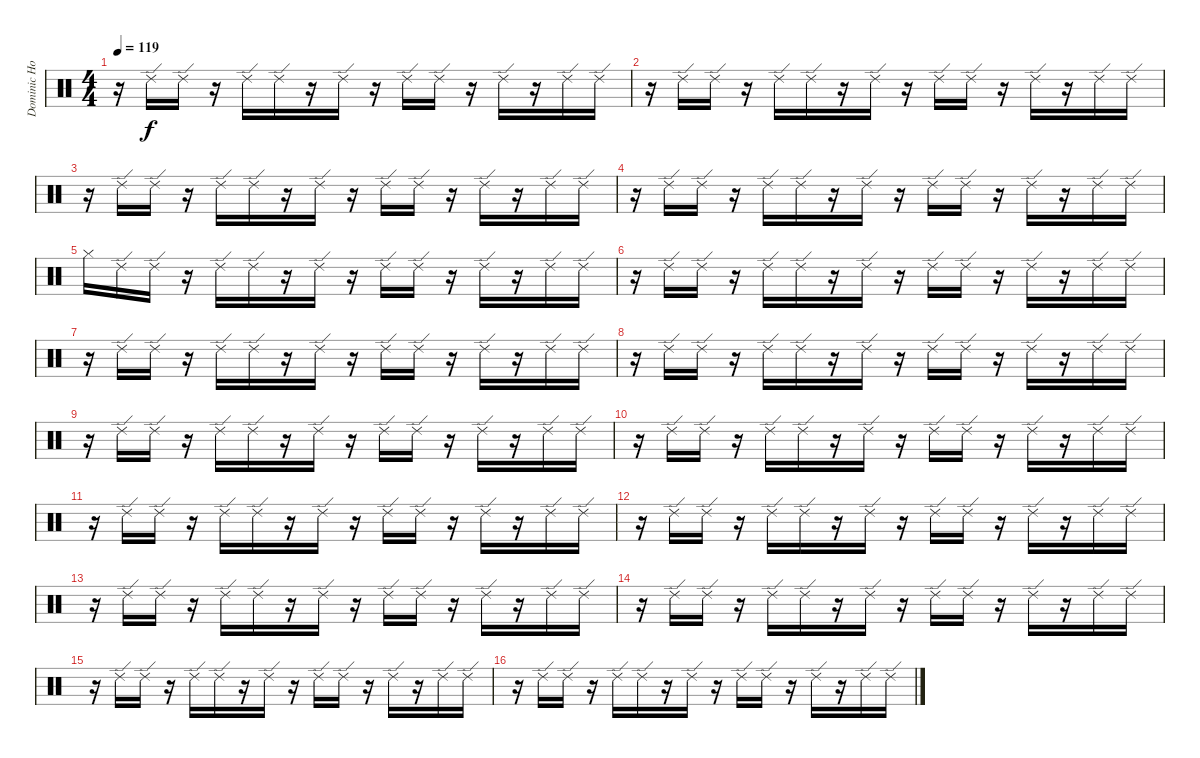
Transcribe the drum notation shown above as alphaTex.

\track ("Dominic Howard" "Dominic Ho") {instrument percussion}
\staff {score}
\articulation defaults
\ts (4 4)
\tempo 119
\clef neutral
\ks c
r.16{dy f} "Ride (edge) 2".16 "Ride (edge) 2".16 r.16 "Ride (edge) 2".16 "Ride (edge) 2".16 r.16 "Ride (edge) 2".16 r.16 "Ride (edge) 2".16 "Ride (edge) 2".16 r.16 "Ride (edge) 2".16 r.16 "Ride (edge) 2".16 "Ride (edge) 2".16 |
r.16 "Ride (edge) 2".16 "Ride (edge) 2".16 r.16 "Ride (edge) 2".16 "Ride (edge) 2".16 r.16 "Ride (edge) 2".16 r.16 "Ride (edge) 2".16 "Ride (edge) 2".16 r.16 "Ride (edge) 2".16 r.16 "Ride (edge) 2".16 "Ride (edge) 2".16 |
r.16 "Ride (edge) 2".16 "Ride (edge) 2".16 r.16 "Ride (edge) 2".16 "Ride (edge) 2".16 r.16 "Ride (edge) 2".16 r.16 "Ride (edge) 2".16 "Ride (edge) 2".16 r.16 "Ride (edge) 2".16 r.16 "Ride (edge) 2".16 "Ride (edge) 2".16 |
r.16 "Ride (edge) 2".16 "Ride (edge) 2".16 r.16 "Ride (edge) 2".16 "Ride (edge) 2".16 r.16 "Ride (edge) 2".16 r.16 "Ride (edge) 2".16 "Ride (edge) 2".16 r.16 "Ride (edge) 2".16 r.16 "Ride (edge) 2".16 "Ride (edge) 2".16 |
"Hi-Hat (closed)".16 "Ride (edge) 2".16 "Ride (edge) 2".16 r.16 "Ride (edge) 2".16 "Ride (edge) 2".16 r.16 "Ride (edge) 2".16 r.16 "Ride (edge) 2".16 "Ride (edge) 2".16 r.16 "Ride (edge) 2".16 r.16 "Ride (edge) 2".16 "Ride (edge) 2".16 |
r.16 "Ride (edge) 2".16 "Ride (edge) 2".16 r.16 "Ride (edge) 2".16 "Ride (edge) 2".16 r.16 "Ride (edge) 2".16 r.16 "Ride (edge) 2".16 "Ride (edge) 2".16 r.16 "Ride (edge) 2".16 r.16 "Ride (edge) 2".16 "Ride (edge) 2".16 |
r.16 "Ride (edge) 2".16 "Ride (edge) 2".16 r.16 "Ride (edge) 2".16 "Ride (edge) 2".16 r.16 "Ride (edge) 2".16 r.16 "Ride (edge) 2".16 "Ride (edge) 2".16 r.16 "Ride (edge) 2".16 r.16 "Ride (edge) 2".16 "Ride (edge) 2".16 |
r.16 "Ride (edge) 2".16 "Ride (edge) 2".16 r.16 "Ride (edge) 2".16 "Ride (edge) 2".16 r.16 "Ride (edge) 2".16 r.16 "Ride (edge) 2".16 "Ride (edge) 2".16 r.16 "Ride (edge) 2".16 r.16 "Ride (edge) 2".16 "Ride (edge) 2".16 |
r.16 "Ride (edge) 2".16 "Ride (edge) 2".16 r.16 "Ride (edge) 2".16 "Ride (edge) 2".16 r.16 "Ride (edge) 2".16 r.16 "Ride (edge) 2".16 "Ride (edge) 2".16 r.16 "Ride (edge) 2".16 r.16 "Ride (edge) 2".16 "Ride (edge) 2".16 |
r.16 "Ride (edge) 2".16 "Ride (edge) 2".16 r.16 "Ride (edge) 2".16 "Ride (edge) 2".16 r.16 "Ride (edge) 2".16 r.16 "Ride (edge) 2".16 "Ride (edge) 2".16 r.16 "Ride (edge) 2".16 r.16 "Ride (edge) 2".16 "Ride (edge) 2".16 |
r.16 "Ride (edge) 2".16 "Ride (edge) 2".16 r.16 "Ride (edge) 2".16 "Ride (edge) 2".16 r.16 "Ride (edge) 2".16 r.16 "Ride (edge) 2".16 "Ride (edge) 2".16 r.16 "Ride (edge) 2".16 r.16 "Ride (edge) 2".16 "Ride (edge) 2".16 |
r.16 "Ride (edge) 2".16 "Ride (edge) 2".16 r.16 "Ride (edge) 2".16 "Ride (edge) 2".16 r.16 "Ride (edge) 2".16 r.16 "Ride (edge) 2".16 "Ride (edge) 2".16 r.16 "Ride (edge) 2".16 r.16 "Ride (edge) 2".16 "Ride (edge) 2".16 |
r.16 "Ride (edge) 2".16 "Ride (edge) 2".16 r.16 "Ride (edge) 2".16 "Ride (edge) 2".16 r.16 "Ride (edge) 2".16 r.16 "Ride (edge) 2".16 "Ride (edge) 2".16 r.16 "Ride (edge) 2".16 r.16 "Ride (edge) 2".16 "Ride (edge) 2".16 |
r.16 "Ride (edge) 2".16 "Ride (edge) 2".16 r.16 "Ride (edge) 2".16 "Ride (edge) 2".16 r.16 "Ride (edge) 2".16 r.16 "Ride (edge) 2".16 "Ride (edge) 2".16 r.16 "Ride (edge) 2".16 r.16 "Ride (edge) 2".16 "Ride (edge) 2".16 |
r.16 "Ride (edge) 2".16 "Ride (edge) 2".16 r.16 "Ride (edge) 2".16 "Ride (edge) 2".16 r.16 "Ride (edge) 2".16 r.16 "Ride (edge) 2".16 "Ride (edge) 2".16 r.16 "Ride (edge) 2".16 r.16 "Ride (edge) 2".16 "Ride (edge) 2".16 |
r.16 "Ride (edge) 2".16 "Ride (edge) 2".16 r.16 "Ride (edge) 2".16 "Ride (edge) 2".16 r.16 "Ride (edge) 2".16 r.16 "Ride (edge) 2".16 "Ride (edge) 2".16 r.16 "Ride (edge) 2".16 r.16 "Ride (edge) 2".16 "Ride (edge) 2".16
